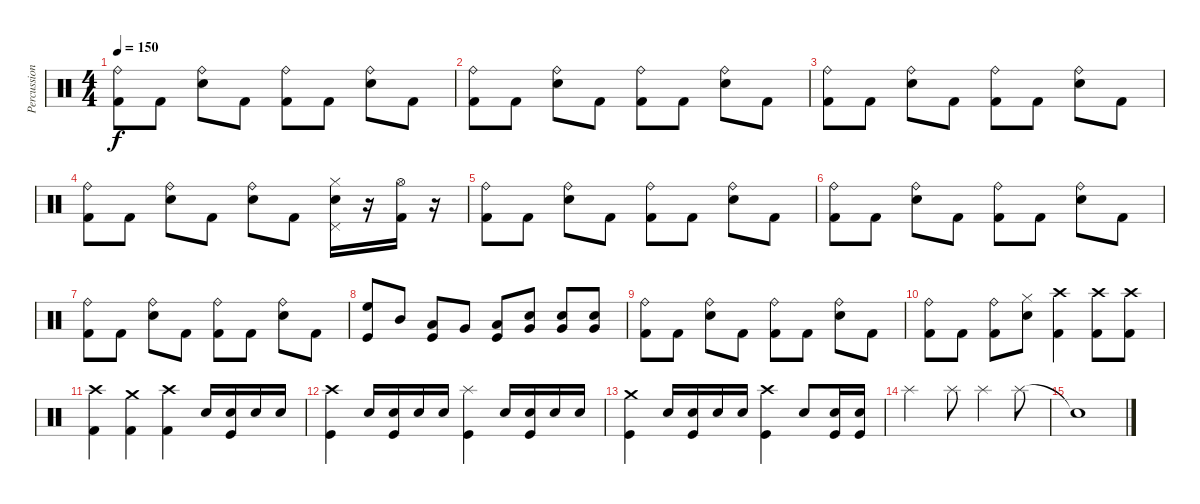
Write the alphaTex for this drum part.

\track ("Percussion" "Percussion") {instrument percussion}
\staff {score}
\articulation defaults
\ts (4 4)
\tempo 150
\clef neutral
\ks c
("Kick (hit) 2" "Ride (bell)").8{dy f} "Kick (hit) 2".8 ("Snare (hit) 2" "Ride (bell)").8 "Kick (hit) 2".8 ("Kick (hit) 2" "Ride (bell)").8 "Kick (hit) 2".8 ("Snare (hit) 2" "Ride (bell)").8 "Kick (hit) 2".8 |
("Kick (hit) 2" "Ride (bell)").8 "Kick (hit) 2".8 ("Snare (hit) 2" "Ride (bell)").8 "Kick (hit) 2".8 ("Kick (hit) 2" "Ride (bell)").8 "Kick (hit) 2".8 ("Snare (hit) 2" "Ride (bell)").8 "Kick (hit) 2".8 |
("Kick (hit) 2" "Ride (bell)").8 "Kick (hit) 2".8 ("Snare (hit) 2" "Ride (bell)").8 "Kick (hit) 2".8 ("Kick (hit) 2" "Ride (bell)").8 "Kick (hit) 2".8 ("Snare (hit) 2" "Ride (bell)").8 "Kick (hit) 2".8 |
("Kick (hit) 2" "Ride (bell)").8 "Kick (hit) 2".8 ("Snare (hit) 2" "Ride (bell)").8 "Kick (hit) 2".8 ("Snare (hit) 2" "Ride (bell)").8 "Kick (hit) 2".8 ("Snare (hit) 2" "Pedal Hi-Hat (hit)" "Hi-Hat (closed)").16 r.16 ("Kick (hit) 2" "Hi-Hat (open)").16 r.16 |
("Kick (hit) 2" "Ride (bell)").8 "Kick (hit) 2".8 ("Snare (hit) 2" "Ride (bell)").8 "Kick (hit) 2".8 ("Kick (hit) 2" "Ride (bell)").8 "Kick (hit) 2".8 ("Snare (hit) 2" "Ride (bell)").8 "Kick (hit) 2".8 |
("Kick (hit) 2" "Ride (bell)").8 "Kick (hit) 2".8 ("Snare (hit) 2" "Ride (bell)").8 "Kick (hit) 2".8 ("Kick (hit) 2" "Ride (bell)").8 "Kick (hit) 2".8 ("Snare (hit) 2" "Ride (bell)").8 "Kick (hit) 2".8 |
("Kick (hit) 2" "Ride (bell)").8 "Kick (hit) 2".8 ("Snare (hit) 2" "Ride (bell)").8 "Kick (hit) 2".8 ("Kick (hit) 2" "Ride (bell)").8 "Kick (hit) 2".8 ("Snare (hit) 2" "Ride (bell)").8 "Kick (hit) 2".8 |
("High Floor Tom (hit)" "Kick (hit)").8 "Mid Tom (hit)".8 ("Low Tom (hit)" "Kick (hit)").8 "Very Low Tom (hit)".8 ("Low Floor Tom (hit)" "Kick (hit)").8 ("Very Low Tom (hit)" "Snare (hit) 2").8 ("Very Low Tom (hit)" "Snare (hit) 2").8 ("Very Low Tom (hit)" "Snare (hit) 2").8 |
("Kick (hit) 2" "Ride (bell)").8 "Kick (hit) 2".8 ("Snare (hit) 2" "Ride (bell)").8 "Kick (hit) 2".8 ("Kick (hit) 2" "Ride (bell)").8 "Kick (hit) 2".8 ("Snare (hit) 2" "Ride (bell)").8 "Kick (hit) 2".8 |
("Kick (hit) 2" "Ride (bell)").8 "Kick (hit) 2".8 ("Kick (hit) 2" "Ride (bell)").8 ("Snare (hit) 2" "Hi-Hat (closed)").8 ("Kick (hit) 2" "Crash high (hit)").4 ("Kick (hit) 2" "Crash high (hit)").8 ("Kick (hit) 2" "Crash high (hit)").8 |
("Kick (hit) 2" "Crash high (hit)").4 ("Kick (hit) 2" "Crash medium (hit)").4 ("Kick (hit) 2" "Crash high (hit)").4 "Snare (hit) 2".16 ("Snare (hit) 2" "Kick (hit)").16 "Snare (hit) 2".16 "Snare (hit) 2".16 |
("Kick (hit)" "Crash high (hit)").4 "Snare (hit) 2".16 ("Snare (hit) 2" "Kick (hit)").16 "Snare (hit) 2".16 "Snare (hit) 2".16 ("Kick (hit)" "Splash (hit)").4 "Snare (hit) 2".16 ("Snare (hit) 2" "Kick (hit)").16 "Snare (hit) 2".16 "Snare (hit) 2".16 |
("Kick (hit)" "Crash medium (hit)").4 "Snare (hit) 2".16 ("Snare (hit) 2" "Kick (hit)").16 "Snare (hit) 2".16 "Snare (hit) 2".16 ("Kick (hit)" "Crash high (hit)").4 "Snare (hit) 2".8 ("Snare (hit) 2" "Kick (hit)").16 ("Snare (hit) 2" "Kick (hit)").16 |
"Splash (hit)".2 "Splash (hit)".8 "Splash (hit)".4 "Splash (hit)".8 |
"Snare (hit)"{t}.1
